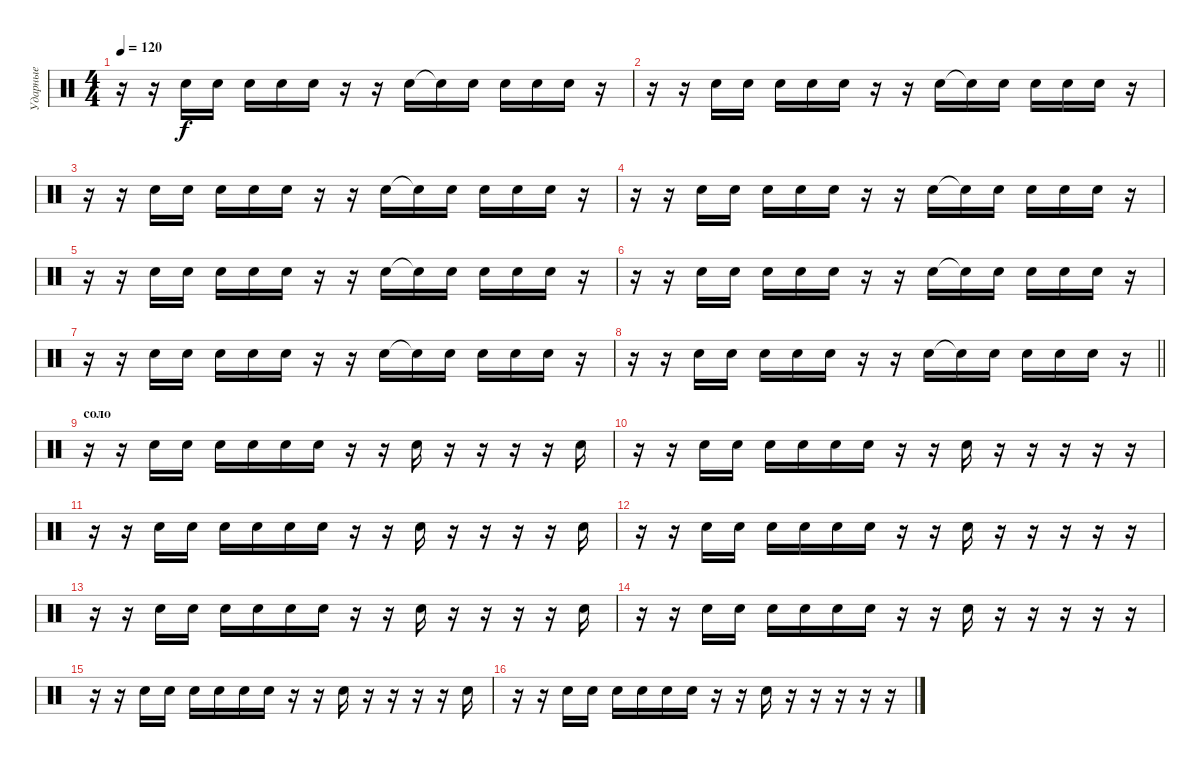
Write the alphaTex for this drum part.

\track ("Ударные" "Ударные") {instrument percussion}
\staff {score}
\articulation defaults
\ts (4 4)
\tempo 120
\clef neutral
\ks c
r.16{dy f} r.16 "Hand Clap (hit)".16 "Hand Clap (hit)".16 "Hand Clap (hit)".16 "Hand Clap (hit)".16 "Hand Clap (hit)".16 r.16 r.16 "Hand Clap (hit)".16 "Hand Clap (hit)"{t}.16 "Hand Clap (hit)".16 "Hand Clap (hit)".16 "Hand Clap (hit)".16 "Hand Clap (hit)".16 r.16 |
r.16 r.16 "Hand Clap (hit)".16 "Hand Clap (hit)".16 "Hand Clap (hit)".16 "Hand Clap (hit)".16 "Hand Clap (hit)".16 r.16 r.16 "Hand Clap (hit)".16 "Hand Clap (hit)"{t}.16 "Hand Clap (hit)".16 "Hand Clap (hit)".16 "Hand Clap (hit)".16 "Hand Clap (hit)".16 r.16 |
r.16 r.16 "Hand Clap (hit)".16 "Hand Clap (hit)".16 "Hand Clap (hit)".16 "Hand Clap (hit)".16 "Hand Clap (hit)".16 r.16 r.16 "Hand Clap (hit)".16 "Hand Clap (hit)"{t}.16 "Hand Clap (hit)".16 "Hand Clap (hit)".16 "Hand Clap (hit)".16 "Hand Clap (hit)".16 r.16 |
r.16 r.16 "Hand Clap (hit)".16 "Hand Clap (hit)".16 "Hand Clap (hit)".16 "Hand Clap (hit)".16 "Hand Clap (hit)".16 r.16 r.16 "Hand Clap (hit)".16 "Hand Clap (hit)"{t}.16 "Hand Clap (hit)".16 "Hand Clap (hit)".16 "Hand Clap (hit)".16 "Hand Clap (hit)".16 r.16 |
r.16 r.16 "Hand Clap (hit)".16 "Hand Clap (hit)".16 "Hand Clap (hit)".16 "Hand Clap (hit)".16 "Hand Clap (hit)".16 r.16 r.16 "Hand Clap (hit)".16 "Hand Clap (hit)"{t}.16 "Hand Clap (hit)".16 "Hand Clap (hit)".16 "Hand Clap (hit)".16 "Hand Clap (hit)".16 r.16 |
r.16 r.16 "Hand Clap (hit)".16 "Hand Clap (hit)".16 "Hand Clap (hit)".16 "Hand Clap (hit)".16 "Hand Clap (hit)".16 r.16 r.16 "Hand Clap (hit)".16 "Hand Clap (hit)"{t}.16 "Hand Clap (hit)".16 "Hand Clap (hit)".16 "Hand Clap (hit)".16 "Hand Clap (hit)".16 r.16 |
r.16 r.16 "Hand Clap (hit)".16 "Hand Clap (hit)".16 "Hand Clap (hit)".16 "Hand Clap (hit)".16 "Hand Clap (hit)".16 r.16 r.16 "Hand Clap (hit)".16 "Hand Clap (hit)"{t}.16 "Hand Clap (hit)".16 "Hand Clap (hit)".16 "Hand Clap (hit)".16 "Hand Clap (hit)".16 r.16 |
\barLineRight lightlight
r.16 r.16 "Hand Clap (hit)".16 "Hand Clap (hit)".16 "Hand Clap (hit)".16 "Hand Clap (hit)".16 "Hand Clap (hit)".16 r.16 r.16 "Hand Clap (hit)".16 "Hand Clap (hit)"{t}.16 "Hand Clap (hit)".16 "Hand Clap (hit)".16 "Hand Clap (hit)".16 "Hand Clap (hit)".16 r.16 |
\section ("" "соло")
r.16 r.16 "Hand Clap (hit)".16 "Hand Clap (hit)".16 "Hand Clap (hit)".16 "Hand Clap (hit)".16 "Hand Clap (hit)".16 "Hand Clap (hit)".16 r.16 r.16 "Hand Clap (hit)".16 r.16 r.16 r.16 r.16 "Hand Clap (hit)".16 |
r.16 r.16 "Hand Clap (hit)".16 "Hand Clap (hit)".16 "Hand Clap (hit)".16 "Hand Clap (hit)".16 "Hand Clap (hit)".16 "Hand Clap (hit)".16 r.16 r.16 "Hand Clap (hit)".16 r.16 r.16 r.16 r.16 r.16 |
r.16 r.16 "Hand Clap (hit)".16 "Hand Clap (hit)".16 "Hand Clap (hit)".16 "Hand Clap (hit)".16 "Hand Clap (hit)".16 "Hand Clap (hit)".16 r.16 r.16 "Hand Clap (hit)".16 r.16 r.16 r.16 r.16 "Hand Clap (hit)".16 |
r.16 r.16 "Hand Clap (hit)".16 "Hand Clap (hit)".16 "Hand Clap (hit)".16 "Hand Clap (hit)".16 "Hand Clap (hit)".16 "Hand Clap (hit)".16 r.16 r.16 "Hand Clap (hit)".16 r.16 r.16 r.16 r.16 r.16 |
r.16 r.16 "Hand Clap (hit)".16 "Hand Clap (hit)".16 "Hand Clap (hit)".16 "Hand Clap (hit)".16 "Hand Clap (hit)".16 "Hand Clap (hit)".16 r.16 r.16 "Hand Clap (hit)".16 r.16 r.16 r.16 r.16 "Hand Clap (hit)".16 |
r.16 r.16 "Hand Clap (hit)".16 "Hand Clap (hit)".16 "Hand Clap (hit)".16 "Hand Clap (hit)".16 "Hand Clap (hit)".16 "Hand Clap (hit)".16 r.16 r.16 "Hand Clap (hit)".16 r.16 r.16 r.16 r.16 r.16 |
r.16 r.16 "Hand Clap (hit)".16 "Hand Clap (hit)".16 "Hand Clap (hit)".16 "Hand Clap (hit)".16 "Hand Clap (hit)".16 "Hand Clap (hit)".16 r.16 r.16 "Hand Clap (hit)".16 r.16 r.16 r.16 r.16 "Hand Clap (hit)".16 |
r.16 r.16 "Hand Clap (hit)".16 "Hand Clap (hit)".16 "Hand Clap (hit)".16 "Hand Clap (hit)".16 "Hand Clap (hit)".16 "Hand Clap (hit)".16 r.16 r.16 "Hand Clap (hit)".16 r.16 r.16 r.16 r.16 r.16
